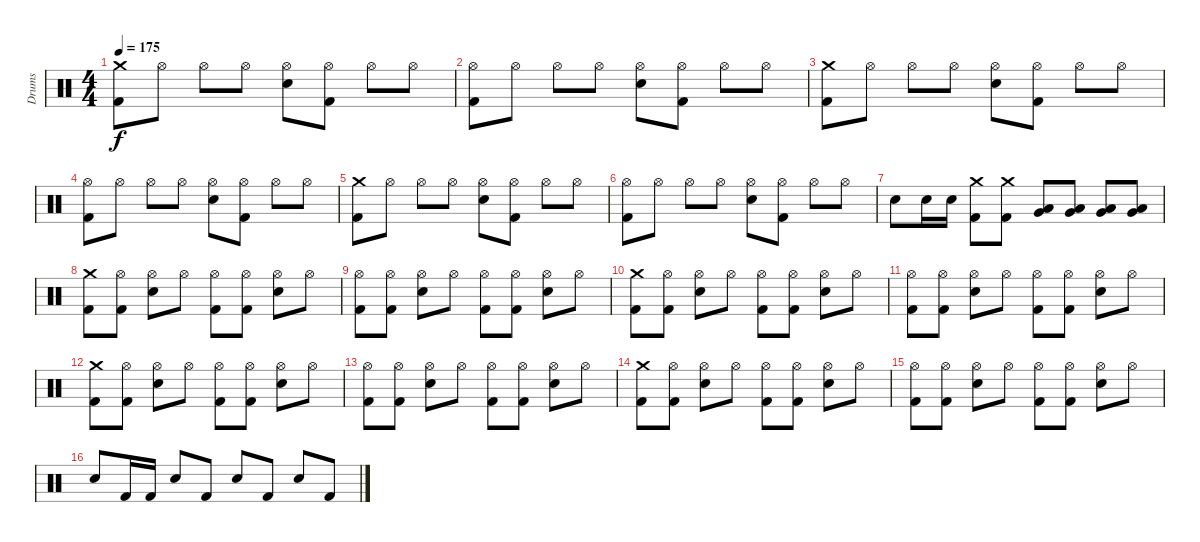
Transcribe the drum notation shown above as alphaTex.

\track ("Drums" "Drums") {instrument percussion}
\staff {score}
\articulation defaults
\ts (4 4)
\tempo 175
\clef neutral
\ks c
("Kick (hit) 2" "Crash medium (hit)").8{dy f} "Hi-Hat (open)".8 "Hi-Hat (open)".8 "Hi-Hat (open)".8 ("Electric Snare (hit)" "Hi-Hat (open)").8 ("Kick (hit) 2" "Hi-Hat (open)").8 "Hi-Hat (open)".8 "Hi-Hat (open)".8 |
("Kick (hit) 2" "Hi-Hat (open)").8 "Hi-Hat (open)".8 "Hi-Hat (open)".8 "Hi-Hat (open)".8 ("Electric Snare (hit)" "Hi-Hat (open)").8 ("Kick (hit) 2" "Hi-Hat (open)").8 "Hi-Hat (open)".8 "Hi-Hat (open)".8 |
("Kick (hit) 2" "Crash medium (hit)").8 "Hi-Hat (open)".8 "Hi-Hat (open)".8 "Hi-Hat (open)".8 ("Electric Snare (hit)" "Hi-Hat (open)").8 ("Kick (hit) 2" "Hi-Hat (open)").8 "Hi-Hat (open)".8 "Hi-Hat (open)".8 |
("Kick (hit) 2" "Hi-Hat (open)").8 "Hi-Hat (open)".8 "Hi-Hat (open)".8 "Hi-Hat (open)".8 ("Electric Snare (hit)" "Hi-Hat (open)").8 ("Kick (hit) 2" "Hi-Hat (open)").8 "Hi-Hat (open)".8 "Hi-Hat (open)".8 |
("Kick (hit) 2" "Crash medium (hit)").8 "Hi-Hat (open)".8 "Hi-Hat (open)".8 "Hi-Hat (open)".8 ("Electric Snare (hit)" "Hi-Hat (open)").8 ("Kick (hit) 2" "Hi-Hat (open)").8 "Hi-Hat (open)".8 "Hi-Hat (open)".8 |
("Kick (hit) 2" "Hi-Hat (open)").8 "Hi-Hat (open)".8 "Hi-Hat (open)".8 "Hi-Hat (open)".8 ("Electric Snare (hit)" "Hi-Hat (open)").8 ("Kick (hit) 2" "Hi-Hat (open)").8 "Hi-Hat (open)".8 "Hi-Hat (open)".8 |
"Electric Snare (hit)".8 "Electric Snare (hit)".16 "Electric Snare (hit)".16 ("Crash medium (hit)" "Kick (hit) 2").8 ("Kick (hit) 2" "Crash medium (hit)").8 ("Low Floor Tom (hit)" "Very Low Tom (hit)").8 ("Low Floor Tom (hit)" "Very Low Tom (hit)").8 ("Low Floor Tom (hit)" "Very Low Tom (hit)").8 ("Low Floor Tom (hit)" "Very Low Tom (hit)").8 |
("Kick (hit) 2" "Crash medium (hit)").8 ("Kick (hit) 2" "Hi-Hat (open)").8 ("Electric Snare (hit)" "Hi-Hat (open)").8 "Hi-Hat (open)".8 ("Kick (hit) 2" "Hi-Hat (open)").8 ("Kick (hit) 2" "Hi-Hat (open)").8 ("Electric Snare (hit)" "Hi-Hat (open)").8 "Hi-Hat (open)".8 |
("Kick (hit) 2" "Hi-Hat (open)").8 ("Kick (hit) 2" "Hi-Hat (open)").8 ("Electric Snare (hit)" "Hi-Hat (open)").8 "Hi-Hat (open)".8 ("Kick (hit) 2" "Hi-Hat (open)").8 ("Kick (hit) 2" "Hi-Hat (open)").8 ("Electric Snare (hit)" "Hi-Hat (open)").8 "Hi-Hat (open)".8 |
("Kick (hit) 2" "Crash medium (hit)").8 ("Kick (hit) 2" "Hi-Hat (open)").8 ("Electric Snare (hit)" "Hi-Hat (open)").8 "Hi-Hat (open)".8 ("Kick (hit) 2" "Hi-Hat (open)").8 ("Kick (hit) 2" "Hi-Hat (open)").8 ("Electric Snare (hit)" "Hi-Hat (open)").8 "Hi-Hat (open)".8 |
("Kick (hit) 2" "Hi-Hat (open)").8 ("Kick (hit) 2" "Hi-Hat (open)").8 ("Electric Snare (hit)" "Hi-Hat (open)").8 "Hi-Hat (open)".8 ("Kick (hit) 2" "Hi-Hat (open)").8 ("Kick (hit) 2" "Hi-Hat (open)").8 ("Electric Snare (hit)" "Hi-Hat (open)").8 "Hi-Hat (open)".8 |
("Kick (hit) 2" "Crash medium (hit)").8 ("Kick (hit) 2" "Hi-Hat (open)").8 ("Electric Snare (hit)" "Hi-Hat (open)").8 "Hi-Hat (open)".8 ("Kick (hit) 2" "Hi-Hat (open)").8 ("Kick (hit) 2" "Hi-Hat (open)").8 ("Electric Snare (hit)" "Hi-Hat (open)").8 "Hi-Hat (open)".8 |
("Kick (hit) 2" "Hi-Hat (open)").8 ("Kick (hit) 2" "Hi-Hat (open)").8 ("Electric Snare (hit)" "Hi-Hat (open)").8 "Hi-Hat (open)".8 ("Kick (hit) 2" "Hi-Hat (open)").8 ("Kick (hit) 2" "Hi-Hat (open)").8 ("Electric Snare (hit)" "Hi-Hat (open)").8 "Hi-Hat (open)".8 |
("Kick (hit) 2" "Crash medium (hit)").8 ("Kick (hit) 2" "Hi-Hat (open)").8 ("Electric Snare (hit)" "Hi-Hat (open)").8 "Hi-Hat (open)".8 ("Kick (hit) 2" "Hi-Hat (open)").8 ("Kick (hit) 2" "Hi-Hat (open)").8 ("Electric Snare (hit)" "Hi-Hat (open)").8 "Hi-Hat (open)".8 |
("Kick (hit) 2" "Hi-Hat (open)").8 ("Kick (hit) 2" "Hi-Hat (open)").8 ("Electric Snare (hit)" "Hi-Hat (open)").8 "Hi-Hat (open)".8 ("Kick (hit) 2" "Hi-Hat (open)").8 ("Kick (hit) 2" "Hi-Hat (open)").8 ("Electric Snare (hit)" "Hi-Hat (open)").8 "Hi-Hat (open)".8 |
"Electric Snare (hit)".8 "Kick (hit) 2".16 "Kick (hit) 2".16 "Electric Snare (hit)".8 "Kick (hit) 2".8 "Electric Snare (hit)".8 "Kick (hit) 2".8 "Electric Snare (hit)".8 "Kick (hit) 2".8
